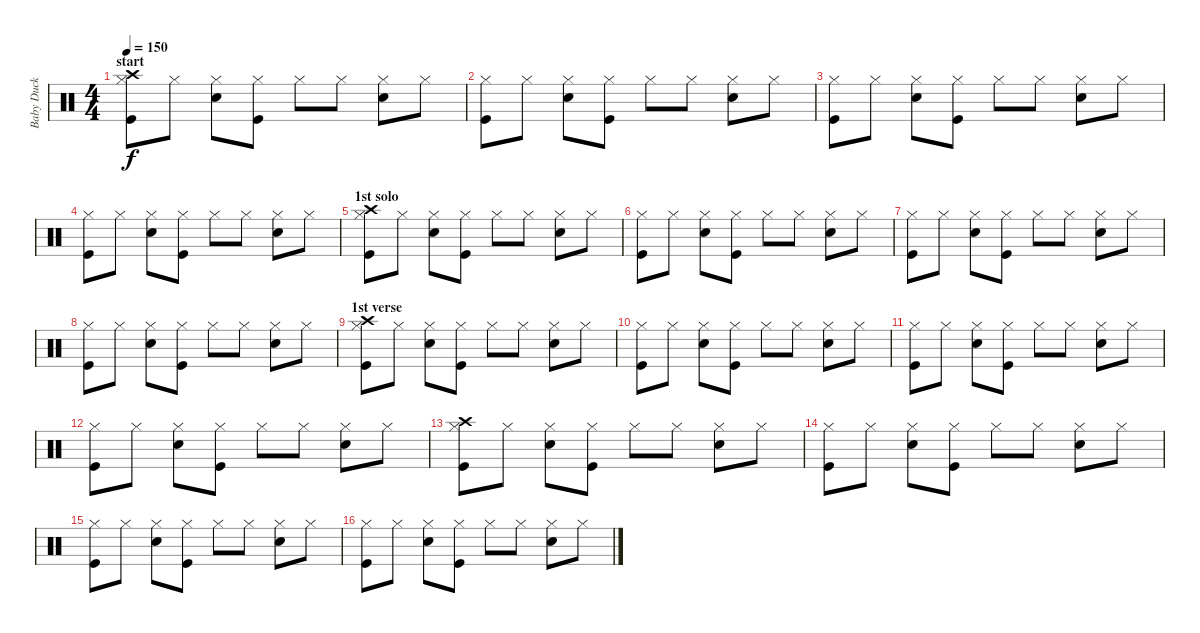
\track ("Baby Duck" "Baby Duck") {instrument percussion}
\staff {score}
\articulation defaults
\ts (4 4)
\section ("" "start")
\tempo 150
\clef neutral
\ks c
("Kick (hit)" "Hi-Hat (closed)" "Crash high (hit)").8{dy f} "Hi-Hat (closed)".8 ("Electric Snare (hit)" "Hi-Hat (closed)").8 ("Kick (hit)" "Hi-Hat (closed)").8 "Hi-Hat (closed)".8 "Hi-Hat (closed)".8 ("Electric Snare (hit)" "Hi-Hat (closed)").8 "Hi-Hat (closed)".8 |
("Kick (hit)" "Hi-Hat (closed)").8 "Hi-Hat (closed)".8 ("Electric Snare (hit)" "Hi-Hat (closed)").8 ("Kick (hit)" "Hi-Hat (closed)").8 "Hi-Hat (closed)".8 "Hi-Hat (closed)".8 ("Electric Snare (hit)" "Hi-Hat (closed)").8 "Hi-Hat (closed)".8 |
("Kick (hit)" "Hi-Hat (closed)").8 "Hi-Hat (closed)".8 ("Electric Snare (hit)" "Hi-Hat (closed)").8 ("Kick (hit)" "Hi-Hat (closed)").8 "Hi-Hat (closed)".8 "Hi-Hat (closed)".8 ("Electric Snare (hit)" "Hi-Hat (closed)").8 "Hi-Hat (closed)".8 |
("Kick (hit)" "Hi-Hat (closed)").8 "Hi-Hat (closed)".8 ("Electric Snare (hit)" "Hi-Hat (closed)").8 ("Kick (hit)" "Hi-Hat (closed)").8 "Hi-Hat (closed)".8 "Hi-Hat (closed)".8 ("Electric Snare (hit)" "Hi-Hat (closed)").8 "Hi-Hat (closed)".8 |
\section ("" "1st solo")
("Kick (hit)" "Hi-Hat (closed)" "Crash high (hit)").8 "Hi-Hat (closed)".8 ("Electric Snare (hit)" "Hi-Hat (closed)").8 ("Kick (hit)" "Hi-Hat (closed)").8 "Hi-Hat (closed)".8 "Hi-Hat (closed)".8 ("Electric Snare (hit)" "Hi-Hat (closed)").8 "Hi-Hat (closed)".8 |
("Kick (hit)" "Hi-Hat (closed)").8 "Hi-Hat (closed)".8 ("Electric Snare (hit)" "Hi-Hat (closed)").8 ("Kick (hit)" "Hi-Hat (closed)").8 "Hi-Hat (closed)".8 "Hi-Hat (closed)".8 ("Electric Snare (hit)" "Hi-Hat (closed)").8 "Hi-Hat (closed)".8 |
("Kick (hit)" "Hi-Hat (closed)").8 "Hi-Hat (closed)".8 ("Electric Snare (hit)" "Hi-Hat (closed)").8 ("Kick (hit)" "Hi-Hat (closed)").8 "Hi-Hat (closed)".8 "Hi-Hat (closed)".8 ("Electric Snare (hit)" "Hi-Hat (closed)").8 "Hi-Hat (closed)".8 |
("Kick (hit)" "Hi-Hat (closed)").8 "Hi-Hat (closed)".8 ("Electric Snare (hit)" "Hi-Hat (closed)").8 ("Kick (hit)" "Hi-Hat (closed)").8 "Hi-Hat (closed)".8 "Hi-Hat (closed)".8 ("Electric Snare (hit)" "Hi-Hat (closed)").8 "Hi-Hat (closed)".8 |
\section ("" "1st verse")
("Kick (hit)" "Hi-Hat (closed)" "Crash high (hit)").8 "Hi-Hat (closed)".8 ("Electric Snare (hit)" "Hi-Hat (closed)").8 ("Kick (hit)" "Hi-Hat (closed)").8 "Hi-Hat (closed)".8 "Hi-Hat (closed)".8 ("Electric Snare (hit)" "Hi-Hat (closed)").8 "Hi-Hat (closed)".8 |
("Kick (hit)" "Hi-Hat (closed)").8 "Hi-Hat (closed)".8 ("Electric Snare (hit)" "Hi-Hat (closed)").8 ("Kick (hit)" "Hi-Hat (closed)").8 "Hi-Hat (closed)".8 "Hi-Hat (closed)".8 ("Electric Snare (hit)" "Hi-Hat (closed)").8 "Hi-Hat (closed)".8 |
("Kick (hit)" "Hi-Hat (closed)").8 "Hi-Hat (closed)".8 ("Electric Snare (hit)" "Hi-Hat (closed)").8 ("Kick (hit)" "Hi-Hat (closed)").8 "Hi-Hat (closed)".8 "Hi-Hat (closed)".8 ("Electric Snare (hit)" "Hi-Hat (closed)").8 "Hi-Hat (closed)".8 |
("Kick (hit)" "Hi-Hat (closed)").8 "Hi-Hat (closed)".8 ("Electric Snare (hit)" "Hi-Hat (closed)").8 ("Kick (hit)" "Hi-Hat (closed)").8 "Hi-Hat (closed)".8 "Hi-Hat (closed)".8 ("Electric Snare (hit)" "Hi-Hat (closed)").8 "Hi-Hat (closed)".8 |
\section ("" "")
("Kick (hit)" "Hi-Hat (closed)" "Crash high (hit)").8 "Hi-Hat (closed)".8 ("Electric Snare (hit)" "Hi-Hat (closed)").8 ("Kick (hit)" "Hi-Hat (closed)").8 "Hi-Hat (closed)".8 "Hi-Hat (closed)".8 ("Electric Snare (hit)" "Hi-Hat (closed)").8 "Hi-Hat (closed)".8 |
("Kick (hit)" "Hi-Hat (closed)").8 "Hi-Hat (closed)".8 ("Electric Snare (hit)" "Hi-Hat (closed)").8 ("Kick (hit)" "Hi-Hat (closed)").8 "Hi-Hat (closed)".8 "Hi-Hat (closed)".8 ("Electric Snare (hit)" "Hi-Hat (closed)").8 "Hi-Hat (closed)".8 |
("Kick (hit)" "Hi-Hat (closed)").8 "Hi-Hat (closed)".8 ("Electric Snare (hit)" "Hi-Hat (closed)").8 ("Kick (hit)" "Hi-Hat (closed)").8 "Hi-Hat (closed)".8 "Hi-Hat (closed)".8 ("Electric Snare (hit)" "Hi-Hat (closed)").8 "Hi-Hat (closed)".8 |
("Kick (hit)" "Hi-Hat (closed)").8 "Hi-Hat (closed)".8 ("Electric Snare (hit)" "Hi-Hat (closed)").8 ("Kick (hit)" "Hi-Hat (closed)").8 "Hi-Hat (closed)".8 "Hi-Hat (closed)".8 ("Electric Snare (hit)" "Hi-Hat (closed)").8 "Hi-Hat (closed)".8
